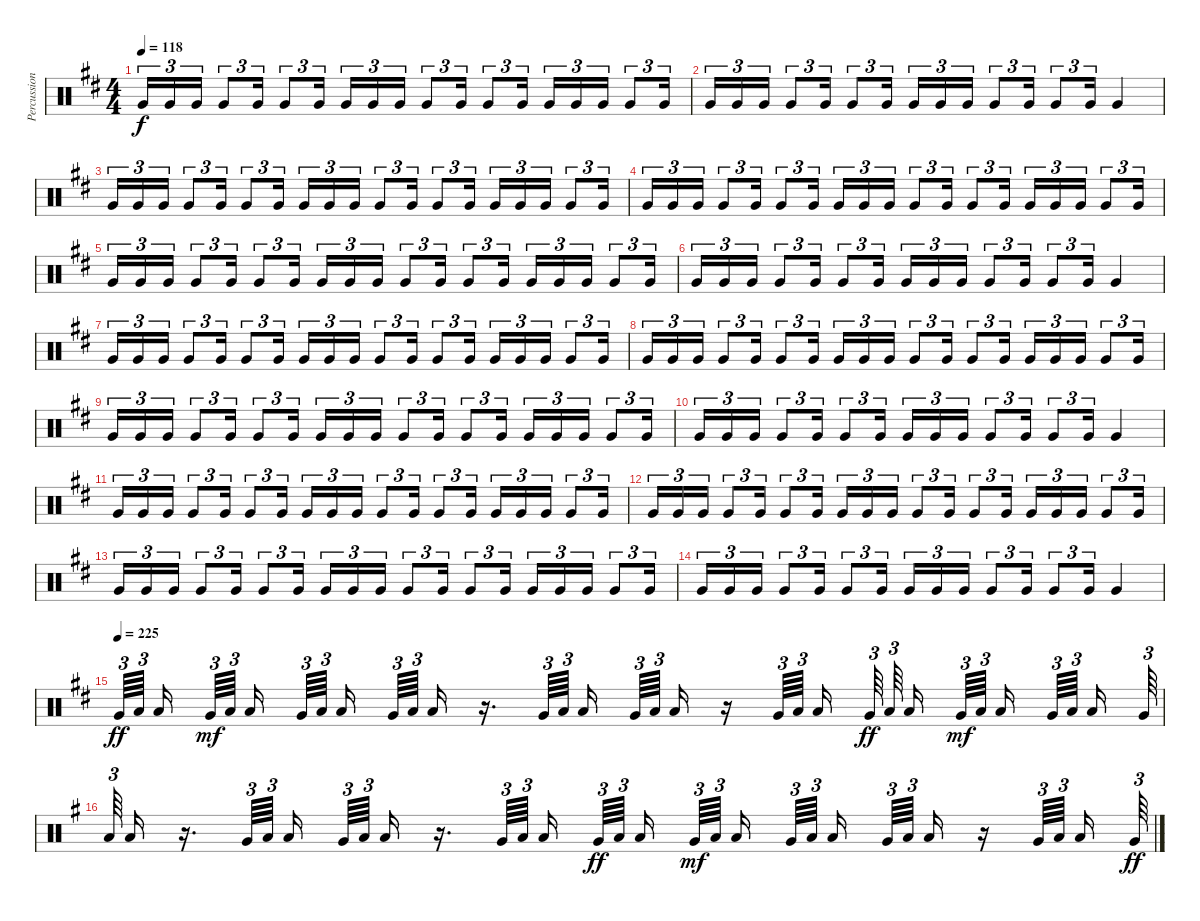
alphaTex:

\track ("Percussion" "Percussion") {instrument percussion}
\staff {score}
\articulation defaults
\ts (4 4)
\tempo 118
\clef neutral
\ks d "Very Low Tom (hit)".16{tu (3 2) dy f} "Very Low Tom (hit)".16{tu (3 2)} "Very Low Tom (hit)".16{tu (3 2)} "Very Low Tom (hit)".8{tu (3 2)} "Very Low Tom (hit)".16{tu (3 2)} "Very Low Tom (hit)".8{tu (3 2)} "Very Low Tom (hit)".16{tu (3 2) beam splitsecondary} "Very Low Tom (hit)".16{tu (3 2)} "Very Low Tom (hit)".16{tu (3 2)} "Very Low Tom (hit)".16{tu (3 2)} "Very Low Tom (hit)".8{tu (3 2)} "Very Low Tom (hit)".16{tu (3 2)} "Very Low Tom (hit)".8{tu (3 2)} "Very Low Tom (hit)".16{tu (3 2)} "Very Low Tom (hit)".16{tu (3 2)} "Very Low Tom (hit)".16{tu (3 2)} "Very Low Tom (hit)".16{tu (3 2)} "Very Low Tom (hit)".8{tu (3 2)} "Very Low Tom (hit)".16{tu (3 2)}
|
"Very Low Tom (hit)".16{tu (3 2)} "Very Low Tom (hit)".16{tu (3 2)} "Very Low Tom (hit)".16{tu (3 2)} "Very Low Tom (hit)".8{tu (3 2)} "Very Low Tom (hit)".16{tu (3 2)} "Very Low Tom (hit)".8{tu (3 2)} "Very Low Tom (hit)".16{tu (3 2) beam splitsecondary} "Very Low Tom (hit)".16{tu (3 2)} "Very Low Tom (hit)".16{tu (3 2)} "Very Low Tom (hit)".16{tu (3 2)} "Very Low Tom (hit)".8{tu (3 2)} "Very Low Tom (hit)".16{tu (3 2)} "Very Low Tom (hit)".8{tu (3 2)} "Very Low Tom (hit)".16{tu (3 2)} "Very Low Tom (hit)".4 |
"Very Low Tom (hit)".16{tu (3 2)} "Very Low Tom (hit)".16{tu (3 2)} "Very Low Tom (hit)".16{tu (3 2)} "Very Low Tom (hit)".8{tu (3 2)} "Very Low Tom (hit)".16{tu (3 2)} "Very Low Tom (hit)".8{tu (3 2)} "Very Low Tom (hit)".16{tu (3 2) beam splitsecondary} "Very Low Tom (hit)".16{tu (3 2)} "Very Low Tom (hit)".16{tu (3 2)} "Very Low Tom (hit)".16{tu (3 2)} "Very Low Tom (hit)".8{tu (3 2)} "Very Low Tom (hit)".16{tu (3 2)} "Very Low Tom (hit)".8{tu (3 2)} "Very Low Tom (hit)".16{tu (3 2)} "Very Low Tom (hit)".16{tu (3 2)} "Very Low Tom (hit)".16{tu (3 2)} "Very Low Tom (hit)".16{tu (3 2)} "Very Low Tom (hit)".8{tu (3 2)} "Very Low Tom (hit)".16{tu (3 2)} |
"Very Low Tom (hit)".16{tu (3 2)} "Very Low Tom (hit)".16{tu (3 2)} "Very Low Tom (hit)".16{tu (3 2)} "Very Low Tom (hit)".8{tu (3 2)} "Very Low Tom (hit)".16{tu (3 2)} "Very Low Tom (hit)".8{tu (3 2)} "Very Low Tom (hit)".16{tu (3 2) beam splitsecondary} "Very Low Tom (hit)".16{tu (3 2)} "Very Low Tom (hit)".16{tu (3 2)} "Very Low Tom (hit)".16{tu (3 2)} "Very Low Tom (hit)".8{tu (3 2)} "Very Low Tom (hit)".16{tu (3 2)} "Very Low Tom (hit)".8{tu (3 2)} "Very Low Tom (hit)".16{tu (3 2)} "Very Low Tom (hit)".16{tu (3 2)} "Very Low Tom (hit)".16{tu (3 2)} "Very Low Tom (hit)".16{tu (3 2)} "Very Low Tom (hit)".8{tu (3 2)} "Very Low Tom (hit)".16{tu (3 2)} |
"Very Low Tom (hit)".16{tu (3 2)} "Very Low Tom (hit)".16{tu (3 2)} "Very Low Tom (hit)".16{tu (3 2)} "Very Low Tom (hit)".8{tu (3 2)} "Very Low Tom (hit)".16{tu (3 2)} "Very Low Tom (hit)".8{tu (3 2)} "Very Low Tom (hit)".16{tu (3 2) beam splitsecondary} "Very Low Tom (hit)".16{tu (3 2)} "Very Low Tom (hit)".16{tu (3 2)} "Very Low Tom (hit)".16{tu (3 2)} "Very Low Tom (hit)".8{tu (3 2)} "Very Low Tom (hit)".16{tu (3 2)} "Very Low Tom (hit)".8{tu (3 2)} "Very Low Tom (hit)".16{tu (3 2)} "Very Low Tom (hit)".16{tu (3 2)} "Very Low Tom (hit)".16{tu (3 2)} "Very Low Tom (hit)".16{tu (3 2)} "Very Low Tom (hit)".8{tu (3 2)} "Very Low Tom (hit)".16{tu (3 2)} |
"Very Low Tom (hit)".16{tu (3 2)} "Very Low Tom (hit)".16{tu (3 2)} "Very Low Tom (hit)".16{tu (3 2)} "Very Low Tom (hit)".8{tu (3 2)} "Very Low Tom (hit)".16{tu (3 2)} "Very Low Tom (hit)".8{tu (3 2)} "Very Low Tom (hit)".16{tu (3 2) beam splitsecondary} "Very Low Tom (hit)".16{tu (3 2)} "Very Low Tom (hit)".16{tu (3 2)} "Very Low Tom (hit)".16{tu (3 2)} "Very Low Tom (hit)".8{tu (3 2)} "Very Low Tom (hit)".16{tu (3 2)} "Very Low Tom (hit)".8{tu (3 2)} "Very Low Tom (hit)".16{tu (3 2)} "Very Low Tom (hit)".4 |
"Very Low Tom (hit)".16{tu (3 2)} "Very Low Tom (hit)".16{tu (3 2)} "Very Low Tom (hit)".16{tu (3 2)} "Very Low Tom (hit)".8{tu (3 2)} "Very Low Tom (hit)".16{tu (3 2)} "Very Low Tom (hit)".8{tu (3 2)} "Very Low Tom (hit)".16{tu (3 2) beam splitsecondary} "Very Low Tom (hit)".16{tu (3 2)} "Very Low Tom (hit)".16{tu (3 2)} "Very Low Tom (hit)".16{tu (3 2)} "Very Low Tom (hit)".8{tu (3 2)} "Very Low Tom (hit)".16{tu (3 2)} "Very Low Tom (hit)".8{tu (3 2)} "Very Low Tom (hit)".16{tu (3 2)} "Very Low Tom (hit)".16{tu (3 2)} "Very Low Tom (hit)".16{tu (3 2)} "Very Low Tom (hit)".16{tu (3 2)} "Very Low Tom (hit)".8{tu (3 2)} "Very Low Tom (hit)".16{tu (3 2)} |
"Very Low Tom (hit)".16{tu (3 2)} "Very Low Tom (hit)".16{tu (3 2)} "Very Low Tom (hit)".16{tu (3 2)} "Very Low Tom (hit)".8{tu (3 2)} "Very Low Tom (hit)".16{tu (3 2)} "Very Low Tom (hit)".8{tu (3 2)} "Very Low Tom (hit)".16{tu (3 2) beam splitsecondary} "Very Low Tom (hit)".16{tu (3 2)} "Very Low Tom (hit)".16{tu (3 2)} "Very Low Tom (hit)".16{tu (3 2)} "Very Low Tom (hit)".8{tu (3 2)} "Very Low Tom (hit)".16{tu (3 2)} "Very Low Tom (hit)".8{tu (3 2)} "Very Low Tom (hit)".16{tu (3 2)} "Very Low Tom (hit)".16{tu (3 2)} "Very Low Tom (hit)".16{tu (3 2)} "Very Low Tom (hit)".16{tu (3 2)} "Very Low Tom (hit)".8{tu (3 2)} "Very Low Tom (hit)".16{tu (3 2)} |
"Very Low Tom (hit)".16{tu (3 2)} "Very Low Tom (hit)".16{tu (3 2)} "Very Low Tom (hit)".16{tu (3 2)} "Very Low Tom (hit)".8{tu (3 2)} "Very Low Tom (hit)".16{tu (3 2)} "Very Low Tom (hit)".8{tu (3 2)} "Very Low Tom (hit)".16{tu (3 2) beam splitsecondary} "Very Low Tom (hit)".16{tu (3 2)} "Very Low Tom (hit)".16{tu (3 2)} "Very Low Tom (hit)".16{tu (3 2)} "Very Low Tom (hit)".8{tu (3 2)} "Very Low Tom (hit)".16{tu (3 2)} "Very Low Tom (hit)".8{tu (3 2)} "Very Low Tom (hit)".16{tu (3 2)} "Very Low Tom (hit)".16{tu (3 2)} "Very Low Tom (hit)".16{tu (3 2)} "Very Low Tom (hit)".16{tu (3 2)} "Very Low Tom (hit)".8{tu (3 2)} "Very Low Tom (hit)".16{tu (3 2)} |
"Very Low Tom (hit)".16{tu (3 2)} "Very Low Tom (hit)".16{tu (3 2)} "Very Low Tom (hit)".16{tu (3 2)} "Very Low Tom (hit)".8{tu (3 2)} "Very Low Tom (hit)".16{tu (3 2)} "Very Low Tom (hit)".8{tu (3 2)} "Very Low Tom (hit)".16{tu (3 2) beam splitsecondary} "Very Low Tom (hit)".16{tu (3 2)} "Very Low Tom (hit)".16{tu (3 2)} "Very Low Tom (hit)".16{tu (3 2)} "Very Low Tom (hit)".8{tu (3 2)} "Very Low Tom (hit)".16{tu (3 2)} "Very Low Tom (hit)".8{tu (3 2)} "Very Low Tom (hit)".16{tu (3 2)} "Very Low Tom (hit)".4 |
"Very Low Tom (hit)".16{tu (3 2)} "Very Low Tom (hit)".16{tu (3 2)} "Very Low Tom (hit)".16{tu (3 2)} "Very Low Tom (hit)".8{tu (3 2)} "Very Low Tom (hit)".16{tu (3 2)} "Very Low Tom (hit)".8{tu (3 2)} "Very Low Tom (hit)".16{tu (3 2) beam splitsecondary} "Very Low Tom (hit)".16{tu (3 2)} "Very Low Tom (hit)".16{tu (3 2)} "Very Low Tom (hit)".16{tu (3 2)} "Very Low Tom (hit)".8{tu (3 2)} "Very Low Tom (hit)".16{tu (3 2)} "Very Low Tom (hit)".8{tu (3 2)} "Very Low Tom (hit)".16{tu (3 2)} "Very Low Tom (hit)".16{tu (3 2)} "Very Low Tom (hit)".16{tu (3 2)} "Very Low Tom (hit)".16{tu (3 2)} "Very Low Tom (hit)".8{tu (3 2)} "Very Low Tom (hit)".16{tu (3 2)} |
"Very Low Tom (hit)".16{tu (3 2)} "Very Low Tom (hit)".16{tu (3 2)} "Very Low Tom (hit)".16{tu (3 2)} "Very Low Tom (hit)".8{tu (3 2)} "Very Low Tom (hit)".16{tu (3 2)} "Very Low Tom (hit)".8{tu (3 2)} "Very Low Tom (hit)".16{tu (3 2) beam splitsecondary} "Very Low Tom (hit)".16{tu (3 2)} "Very Low Tom (hit)".16{tu (3 2)} "Very Low Tom (hit)".16{tu (3 2)} "Very Low Tom (hit)".8{tu (3 2)} "Very Low Tom (hit)".16{tu (3 2)} "Very Low Tom (hit)".8{tu (3 2)} "Very Low Tom (hit)".16{tu (3 2)} "Very Low Tom (hit)".16{tu (3 2)} "Very Low Tom (hit)".16{tu (3 2)} "Very Low Tom (hit)".16{tu (3 2)} "Very Low Tom (hit)".8{tu (3 2)} "Very Low Tom (hit)".16{tu (3 2)} |
"Very Low Tom (hit)".16{tu (3 2)} "Very Low Tom (hit)".16{tu (3 2)} "Very Low Tom (hit)".16{tu (3 2)} "Very Low Tom (hit)".8{tu (3 2)} "Very Low Tom (hit)".16{tu (3 2)} "Very Low Tom (hit)".8{tu (3 2)} "Very Low Tom (hit)".16{tu (3 2) beam splitsecondary} "Very Low Tom (hit)".16{tu (3 2)} "Very Low Tom (hit)".16{tu (3 2)} "Very Low Tom (hit)".16{tu (3 2)} "Very Low Tom (hit)".8{tu (3 2)} "Very Low Tom (hit)".16{tu (3 2)} "Very Low Tom (hit)".8{tu (3 2)} "Very Low Tom (hit)".16{tu (3 2)} "Very Low Tom (hit)".16{tu (3 2)} "Very Low Tom (hit)".16{tu (3 2)} "Very Low Tom (hit)".16{tu (3 2)} "Very Low Tom (hit)".8{tu (3 2)} "Very Low Tom (hit)".16{tu (3 2)} |
"Very Low Tom (hit)".16{tu (3 2)} "Very Low Tom (hit)".16{tu (3 2)} "Very Low Tom (hit)".16{tu (3 2)} "Very Low Tom (hit)".8{tu (3 2)} "Very Low Tom (hit)".16{tu (3 2)} "Very Low Tom (hit)".8{tu (3 2)} "Very Low Tom (hit)".16{tu (3 2) beam splitsecondary} "Very Low Tom (hit)".16{tu (3 2)} "Very Low Tom (hit)".16{tu (3 2)} "Very Low Tom (hit)".16{tu (3 2)} "Very Low Tom (hit)".8{tu (3 2)} "Very Low Tom (hit)".16{tu (3 2)} "Very Low Tom (hit)".8{tu (3 2)} "Very Low Tom (hit)".16{tu (3 2)} "Very Low Tom (hit)".4 |
\tempo (225)
"Very Low Tom (hit)".64{tu (3 2) dy ff} "Low Floor Tom (hit)".64{tu (3 2) beam splitsecondary} "Low Tom (hit)".16{beam splitsecondary} "Very Low Tom (hit)".64{tu (3 2) dy mf} "Low Floor Tom (hit)".64{tu (3 2) beam splitsecondary} "Low Tom (hit)".16{beam splitsecondary} "Very Low Tom (hit)".64{tu (3 2)} "Low Floor Tom (hit)".64{tu (3 2) beam splitsecondary} "Low Tom (hit)".16 "Very Low Tom (hit)".64{tu (3 2)} "Low Floor Tom (hit)".64{tu (3 2) beam splitsecondary} "Low Tom (hit)".16 r.16{d} "Very Low Tom (hit)".64{tu (3 2)} "Low Floor Tom (hit)".64{tu (3 2) beam splitsecondary} "Low Tom (hit)".16 "Very Low Tom (hit)".64{tu (3 2)} "Low Floor Tom (hit)".64{tu (3 2) beam splitsecondary} "Low Tom (hit)".16 r.16 "Very Low Tom (hit)".64{tu (3 2)} "Low Floor Tom (hit)".64{tu (3 2) beam splitsecondary} "Low Tom (hit)".16 "Very Low Tom (hit)".64{tu (3 2) dy ff} "Low Floor Tom (hit)".64{tu (3 2) beam splitsecondary} "Low Tom (hit)".16{beam splitsecondary} "Very Low Tom (hit)".64{tu (3 2) dy mf} "Low Floor Tom (hit)".64{tu (3 2) beam splitsecondary} "Low Tom (hit)".16{beam splitsecondary} "Very Low Tom (hit)".64{tu (3 2)} "Low Floor Tom (hit)".64{tu (3 2) beam splitsecondary} "Low Tom (hit)".16 "Very Low Tom (hit)".64{tu (3 2)} |
\ks g "Low Floor Tom (hit)".64{tu (3 2)} "Low Tom (hit)".16
r.16{d} "Very Low Tom (hit)".64{tu (3 2)} "Low Floor Tom (hit)".64{tu (3 2) beam splitsecondary} "Low Tom (hit)".16 "Very Low Tom (hit)".64{tu (3 2)} "Low Floor Tom (hit)".64{tu (3 2) beam splitsecondary} "Low Tom (hit)".16 r.16{d} "Very Low Tom (hit)".64{tu (3 2)} "Low Floor Tom (hit)".64{tu (3 2) beam splitsecondary} "Low Tom (hit)".16 "Very Low Tom (hit)".64{tu (3 2) dy ff} "Low Floor Tom (hit)".64{tu (3 2) beam splitsecondary} "Low Tom (hit)".16{beam splitsecondary} "Very Low Tom (hit)".64{tu (3 2) dy mf} "Low Floor Tom (hit)".64{tu (3 2) beam splitsecondary} "Low Tom (hit)".16{beam splitsecondary} "Very Low Tom (hit)".64{tu (3 2)} "Low Floor Tom (hit)".64{tu (3 2) beam splitsecondary} "Low Tom (hit)".16 "Very Low Tom (hit)".64{tu (3 2)} "Low Floor Tom (hit)".64{tu (3 2) beam splitsecondary} "Low Tom (hit)".16 r.16 "Very Low Tom (hit)".64{tu (3 2)} "Low Floor Tom (hit)".64{tu (3 2) beam splitsecondary} "Low Tom (hit)".16 "Very Low Tom (hit)".64{tu (3 2) dy ff}
